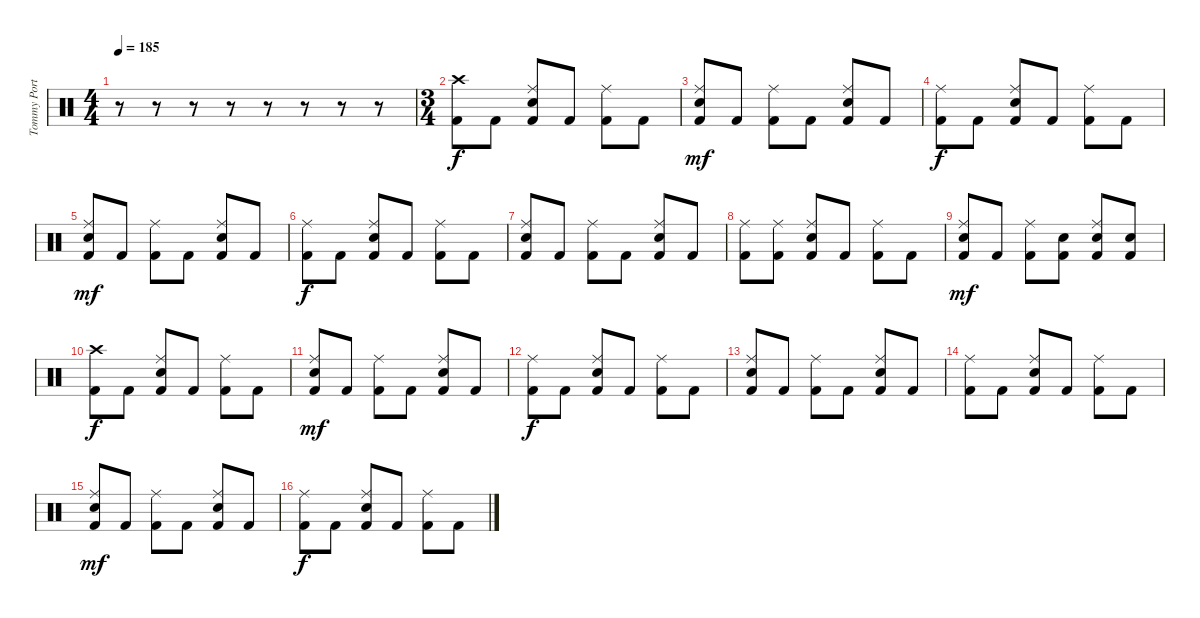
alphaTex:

\track ("Tommy Portino" "Tommy Port") {instrument percussion}
\staff {score}
\articulation defaults
\ts (4 4)
\tempo 185
\clef neutral
\ks c
r.8{dy f} r.8 r.8 r.8 r.8 r.8 r.8 r.8 |
\ts (3 4)
("Crash high (hit)" "Kick (hit) 2").8 "Kick (hit) 2".8 ("Ride (middle)" "Snare (hit) 2" "Kick (hit) 2").8 "Kick (hit) 2".8 ("Ride (middle)" "Kick (hit) 2").8 "Kick (hit) 2".8 |
("Ride (middle)" "Snare (hit) 2" "Kick (hit) 2").8{dy mf} "Kick (hit) 2".8 ("Ride (middle)" "Kick (hit) 2").8 "Kick (hit) 2".8 ("Ride (middle)" "Snare (hit) 2" "Kick (hit) 2").8 "Kick (hit) 2".8 |
("Ride (middle)" "Kick (hit) 2").8{dy f} "Kick (hit) 2".8 ("Ride (middle)" "Snare (hit) 2" "Kick (hit) 2").8 "Kick (hit) 2".8 ("Ride (middle)" "Kick (hit) 2").8 "Kick (hit) 2".8 |
("Ride (middle)" "Snare (hit) 2" "Kick (hit) 2").8{dy mf} "Kick (hit) 2".8 ("Ride (middle)" "Kick (hit) 2").8 "Kick (hit) 2".8 ("Ride (middle)" "Snare (hit) 2" "Kick (hit) 2").8 "Kick (hit) 2".8 |
("Ride (middle)" "Kick (hit) 2").8{dy f} "Kick (hit) 2".8 ("Ride (middle)" "Snare (hit) 2" "Kick (hit) 2").8 "Kick (hit) 2".8 ("Ride (middle)" "Kick (hit) 2").8 "Kick (hit) 2".8 |
("Ride (middle)" "Snare (hit) 2" "Kick (hit) 2").8 "Kick (hit) 2".8 ("Ride (middle)" "Kick (hit) 2").8 "Kick (hit) 2".8 ("Ride (middle)" "Snare (hit) 2" "Kick (hit) 2").8 "Kick (hit) 2".8 |
("Ride (middle)" "Kick (hit) 2").8 ("Ride (middle)" "Kick (hit) 2").8 ("Ride (middle)" "Snare (hit) 2" "Kick (hit) 2").8 "Kick (hit) 2".8 ("Ride (middle)" "Kick (hit) 2").8 "Kick (hit) 2".8 |
("Ride (middle)" "Snare (hit) 2" "Kick (hit) 2").8{dy mf} "Kick (hit) 2".8 ("Ride (middle)" "Kick (hit) 2").8 ("Snare (hit) 2" "Kick (hit) 2").8 ("Ride (middle)" "Snare (hit) 2" "Kick (hit) 2").8 ("Snare (hit) 2" "Kick (hit) 2").8 |
("Crash high (hit)" "Kick (hit) 2").8{dy f} "Kick (hit) 2".8 ("Ride (middle)" "Snare (hit) 2" "Kick (hit) 2").8 "Kick (hit) 2".8 ("Ride (middle)" "Kick (hit) 2").8 "Kick (hit) 2".8 |
("Ride (middle)" "Snare (hit) 2" "Kick (hit) 2").8{dy mf} "Kick (hit) 2".8 ("Ride (middle)" "Kick (hit) 2").8 "Kick (hit) 2".8 ("Ride (middle)" "Snare (hit) 2" "Kick (hit) 2").8 "Kick (hit) 2".8 |
("Ride (middle)" "Kick (hit) 2").8{dy f} "Kick (hit) 2".8 ("Ride (middle)" "Snare (hit) 2" "Kick (hit) 2").8 "Kick (hit) 2".8 ("Ride (middle)" "Kick (hit) 2").8 "Kick (hit) 2".8 |
("Ride (middle)" "Snare (hit) 2" "Kick (hit) 2").8 "Kick (hit) 2".8 ("Ride (middle)" "Kick (hit) 2").8 "Kick (hit) 2".8 ("Ride (middle)" "Snare (hit) 2" "Kick (hit) 2").8 "Kick (hit) 2".8 |
("Ride (middle)" "Kick (hit) 2").8 "Kick (hit) 2".8 ("Ride (middle)" "Snare (hit) 2" "Kick (hit) 2").8 "Kick (hit) 2".8 ("Ride (middle)" "Kick (hit) 2").8 "Kick (hit) 2".8 |
("Ride (middle)" "Snare (hit) 2" "Kick (hit) 2").8{dy mf} "Kick (hit) 2".8 ("Ride (middle)" "Kick (hit) 2").8 "Kick (hit) 2".8 ("Ride (middle)" "Snare (hit) 2" "Kick (hit) 2").8 "Kick (hit) 2".8 |
("Ride (middle)" "Kick (hit) 2").8{dy f} "Kick (hit) 2".8 ("Ride (middle)" "Snare (hit) 2" "Kick (hit) 2").8 "Kick (hit) 2".8 ("Ride (middle)" "Kick (hit) 2").8 "Kick (hit) 2".8
